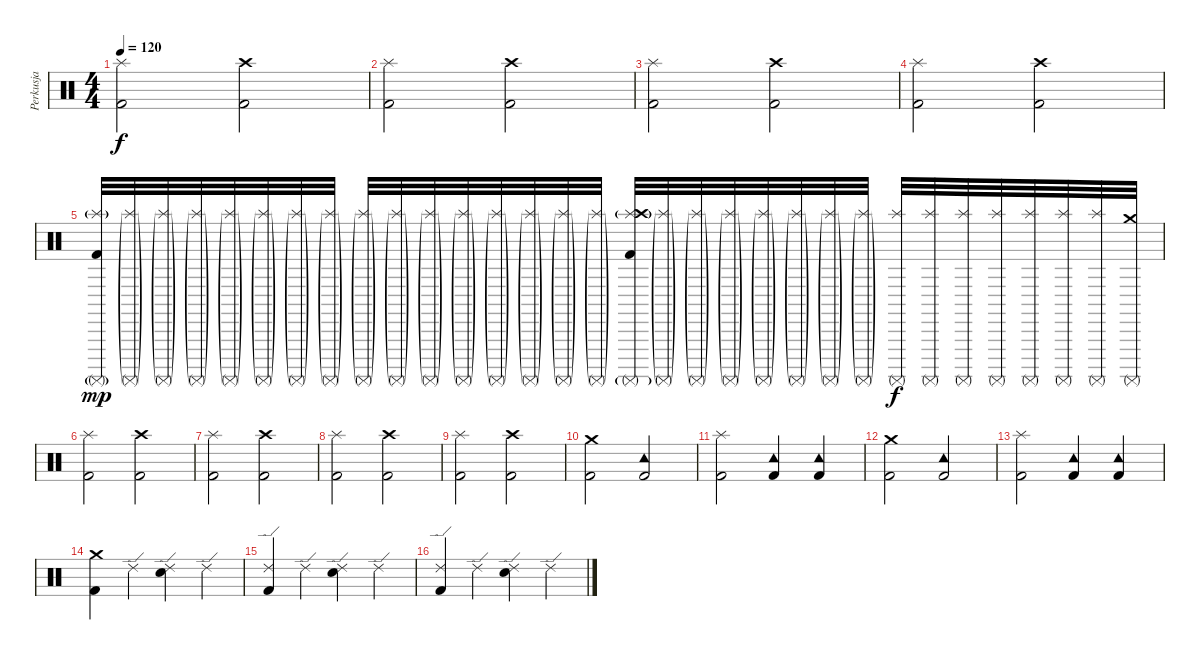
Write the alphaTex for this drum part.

\track ("Perkusja" "Perkusja") {instrument percussion}
\staff {score}
\articulation defaults
\ts (4 4)
\tempo 120
\clef neutral
\ks c
("Splash (hit)" "Kick (hit) 2").2{dy f} ("Crash high (hit)" "Kick (hit) 2").2 |
("Splash (hit)" "Kick (hit) 2").2 ("Crash high (hit)" "Kick (hit) 2").2 |
("Splash (hit)" "Kick (hit) 2").2 ("Crash high (hit)" "Kick (hit) 2").2 |
("Splash (hit)" "Kick (hit) 2").2 ("Crash high (hit)" "Kick (hit) 2").2 |
("Surdo (mute)"{g} "Splash (hit)"{g} "Kick (hit) 2").32{dy mp} ("Surdo (mute)"{g} "Splash (hit)"{g}).32 ("Surdo (mute)"{g} "Splash (hit)"{g}).32 ("Surdo (mute)"{g} "Splash (hit)"{g}).32 ("Surdo (mute)"{g} "Splash (hit)"{g}).32 ("Surdo (mute)"{g} "Splash (hit)"{g}).32 ("Surdo (mute)"{g} "Splash (hit)"{g}).32 ("Surdo (mute)"{g} "Splash (hit)"{g}).32 ("Surdo (mute)"{g} "Splash (hit)"{g}).32 ("Surdo (mute)"{g} "Splash (hit)"{g}).32 ("Surdo (mute)"{g} "Splash (hit)"{g}).32 ("Surdo (mute)"{g} "Splash (hit)"{g}).32 ("Surdo (mute)"{g} "Splash (hit)"{g}).32 ("Surdo (mute)"{g} "Splash (hit)"{g}).32 ("Surdo (mute)"{g} "Splash (hit)"{g}).32 ("Surdo (mute)"{g} "Splash (hit)"{g}).32 ("Surdo (mute)"{g} "Splash (hit)"{g} "Crash high (hit)" "Kick (hit) 2").32 ("Surdo (mute)"{g} "Splash (hit)"{g}).32 ("Surdo (mute)"{g} "Splash (hit)"{g}).32 ("Surdo (mute)"{g} "Splash (hit)"{g}).32 ("Surdo (mute)"{g} "Splash (hit)"{g}).32 ("Surdo (mute)"{g} "Splash (hit)"{g}).32 ("Surdo (mute)"{g} "Splash (hit)"{g}).32 ("Surdo (mute)"{g} "Splash (hit)"{g}).32 ("Surdo (mute)" "Splash (hit)").32{dy f} ("Surdo (mute)" "Splash (hit)").32 ("Surdo (mute)" "Splash (hit)").32 ("Surdo (mute)" "Splash (hit)").32 ("Surdo (mute)" "Splash (hit)").32 ("Surdo (mute)" "Splash (hit)").32 ("Surdo (mute)" "Splash (hit)").32 ("Surdo (mute)" "Crash medium (hit)").32 |
("Splash (hit)" "Kick (hit) 2").2 ("Crash high (hit)" "Kick (hit) 2").2 |
("Splash (hit)" "Kick (hit) 2").2 ("Crash high (hit)" "Kick (hit) 2").2 |
("Splash (hit)" "Kick (hit) 2").2 ("Crash high (hit)" "Kick (hit) 2").2 |
("Splash (hit)" "Kick (hit) 2").2 ("Crash high (hit)" "Kick (hit) 2").2 |
("Crash medium (hit)" "Kick (hit) 2").2 ("Tambourine (hit)" "Kick (hit) 2").2 |
("Splash (hit)" "Kick (hit) 2").2 ("Tambourine (hit)" "Kick (hit) 2").4 ("Tambourine (hit)" "Kick (hit) 2").4 |
("Crash medium (hit)" "Kick (hit) 2").2 ("Tambourine (hit)" "Kick (hit) 2").2 |
("Splash (hit)" "Kick (hit) 2").2 ("Tambourine (hit)" "Kick (hit) 2").4 ("Tambourine (hit)" "Kick (hit) 2").4 |
("Crash medium (hit)" "Kick (hit) 2").4 "Ride (edge) 2".4 ("Ride (edge) 2" "Snare (hit) 2").4 "Ride (edge) 2".4 |
("Ride (edge) 2" "Kick (hit) 2").4 "Ride (edge) 2".4 ("Ride (edge) 2" "Snare (hit) 2").4 "Ride (edge) 2".4 |
("Ride (edge) 2" "Kick (hit) 2").4 "Ride (edge) 2".4 ("Ride (edge) 2" "Snare (hit) 2").4 "Ride (edge) 2".4
